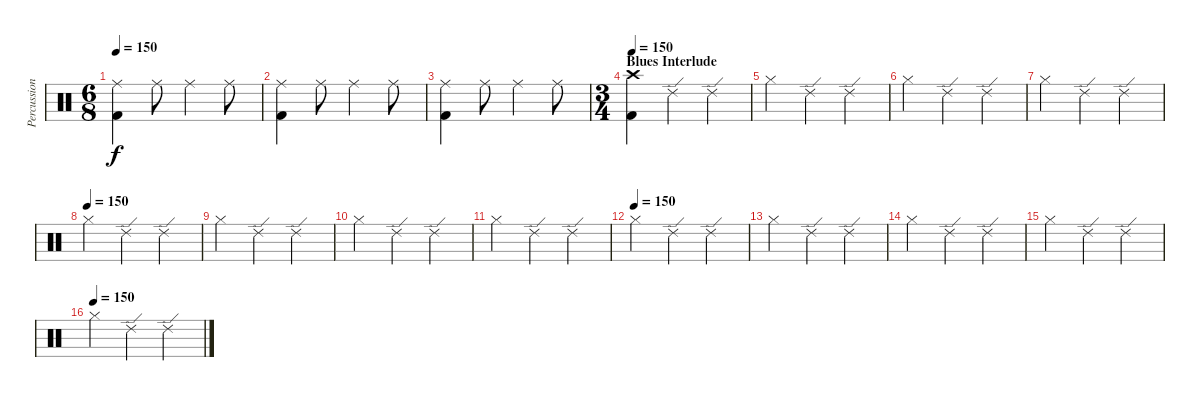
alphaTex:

\track ("Percussion" "Percussion") {instrument percussion}
\staff {score}
\articulation defaults
\ts (6 8)
\tempo 150
\clef neutral
\ks c
("Ride (middle)" "Kick (hit) 2").4{dy f} "Ride (middle)".8 "Ride (middle)".4 "Ride (middle)".8 |
("Ride (middle)" "Kick (hit) 2").4 "Ride (middle)".8 "Ride (middle)".4 "Ride (middle)".8 |
("Ride (middle)" "Kick (hit) 2").4 "Ride (middle)".8 "Ride (middle)".4 "Ride (middle)".8 |
\ts (3 4)
\section ("" "Blues Interlude")
\tempo 150
("Crash high (hit)" "Kick (hit) 2").4 "Ride (edge) 2".4 "Ride (edge) 2".4 |
"Hi-Hat (closed)".4 "Ride (edge) 2".4 "Ride (edge) 2".4 |
"Hi-Hat (closed)".4 "Ride (edge) 2".4 "Ride (edge) 2".4 |
"Hi-Hat (closed)".4 "Ride (edge) 2".4 "Ride (edge) 2".4 |
\tempo (150)
"Hi-Hat (closed)".4 "Ride (edge) 2".4 "Ride (edge) 2".4 |
"Hi-Hat (closed)".4 "Ride (edge) 2".4 "Ride (edge) 2".4 |
"Hi-Hat (closed)".4 "Ride (edge) 2".4 "Ride (edge) 2".4 |
"Hi-Hat (closed)".4 "Ride (edge) 2".4 "Ride (edge) 2".4 |
\tempo (150)
"Hi-Hat (closed)".4 "Ride (edge) 2".4 "Ride (edge) 2".4 |
"Hi-Hat (closed)".4 "Ride (edge) 2".4 "Ride (edge) 2".4 |
"Hi-Hat (closed)".4 "Ride (edge) 2".4 "Ride (edge) 2".4 |
"Hi-Hat (closed)".4 "Ride (edge) 2".4 "Ride (edge) 2".4 |
\tempo (150)
"Hi-Hat (closed)".4 "Ride (edge) 2".4 "Ride (edge) 2".4
